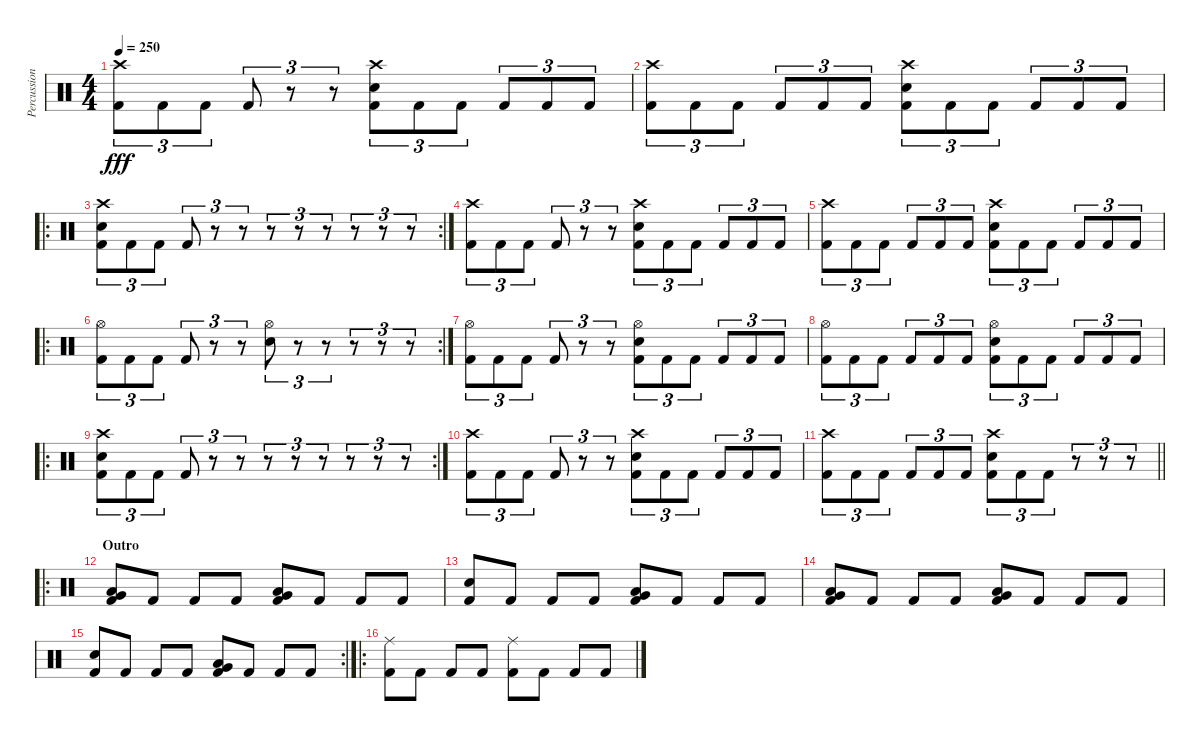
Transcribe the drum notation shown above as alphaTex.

\track ("Percussion" "Percussion") {instrument percussion}
\staff {score}
\articulation defaults
\ts (4 4)
\tempo 250
\clef neutral
\ks c
("Crash high (hit)" "Kick (hit) 2").8{tu (3 2) dy fff} "Kick (hit) 2".8{tu (3 2)} "Kick (hit) 2".8{tu (3 2)} "Kick (hit) 2".8{tu (3 2)} r.8{tu (3 2)} r.8{tu (3 2)} ("Crash high (hit)" "Electric Snare (hit)" "Kick (hit) 2").8{tu (3 2)} "Kick (hit) 2".8{tu (3 2)} "Kick (hit) 2".8{tu (3 2)} "Kick (hit) 2".8{tu (3 2)} "Kick (hit) 2".8{tu (3 2)} "Kick (hit) 2".8{tu (3 2)} |
("Crash high (hit)" "Kick (hit) 2").8{tu (3 2)} "Kick (hit) 2".8{tu (3 2)} "Kick (hit) 2".8{tu (3 2)} "Kick (hit) 2".8{tu (3 2)} "Kick (hit) 2".8{tu (3 2)} "Kick (hit) 2".8{tu (3 2)} ("Crash high (hit)" "Electric Snare (hit)" "Kick (hit) 2").8{tu (3 2)} "Kick (hit) 2".8{tu (3 2)} "Kick (hit) 2".8{tu (3 2)} "Kick (hit) 2".8{tu (3 2)} "Kick (hit) 2".8{tu (3 2)} "Kick (hit) 2".8{tu (3 2)} |
\ro
\rc 2
("Crash high (hit)" "Electric Snare (hit)" "Kick (hit) 2").8{tu (3 2)} "Kick (hit) 2".8{tu (3 2)} "Kick (hit) 2".8{tu (3 2)} "Kick (hit) 2".8{tu (3 2)} r.8{tu (3 2)} r.8{tu (3 2)} r.8{tu (3 2)} r.8{tu (3 2)} r.8{tu (3 2)} r.8{tu (3 2)} r.8{tu (3 2)} r.8{tu (3 2)} |
("Crash high (hit)" "Kick (hit) 2").8{tu (3 2)} "Kick (hit) 2".8{tu (3 2)} "Kick (hit) 2".8{tu (3 2)} "Kick (hit) 2".8{tu (3 2)} r.8{tu (3 2)} r.8{tu (3 2)} ("Crash high (hit)" "Electric Snare (hit)" "Kick (hit) 2").8{tu (3 2)} "Kick (hit) 2".8{tu (3 2)} "Kick (hit) 2".8{tu (3 2)} "Kick (hit) 2".8{tu (3 2)} "Kick (hit) 2".8{tu (3 2)} "Kick (hit) 2".8{tu (3 2)} |
("Crash high (hit)" "Kick (hit) 2").8{tu (3 2)} "Kick (hit) 2".8{tu (3 2)} "Kick (hit) 2".8{tu (3 2)} "Kick (hit) 2".8{tu (3 2)} "Kick (hit) 2".8{tu (3 2)} "Kick (hit) 2".8{tu (3 2)} ("Crash high (hit)" "Electric Snare (hit)" "Kick (hit) 2").8{tu (3 2)} "Kick (hit) 2".8{tu (3 2)} "Kick (hit) 2".8{tu (3 2)} "Kick (hit) 2".8{tu (3 2)} "Kick (hit) 2".8{tu (3 2)} "Kick (hit) 2".8{tu (3 2)} |
\ro
\rc 2
("Hi-Hat (open)" "Kick (hit) 2").8{tu (3 2)} "Kick (hit) 2".8{tu (3 2)} "Kick (hit) 2".8{tu (3 2)} "Kick (hit) 2".8{tu (3 2)} r.8{tu (3 2)} r.8{tu (3 2)} ("Hi-Hat (open)" "Electric Snare (hit)").8{tu (3 2)} r.8{tu (3 2)} r.8{tu (3 2)} r.8{tu (3 2)} r.8{tu (3 2)} r.8{tu (3 2)} |
("Hi-Hat (open)" "Kick (hit) 2").8{tu (3 2)} "Kick (hit) 2".8{tu (3 2)} "Kick (hit) 2".8{tu (3 2)} "Kick (hit) 2".8{tu (3 2)} r.8{tu (3 2)} r.8{tu (3 2)} ("Hi-Hat (open)" "Electric Snare (hit)" "Kick (hit) 2").8{tu (3 2)} "Kick (hit) 2".8{tu (3 2)} "Kick (hit) 2".8{tu (3 2)} "Kick (hit) 2".8{tu (3 2)} "Kick (hit) 2".8{tu (3 2)} "Kick (hit) 2".8{tu (3 2)} |
("Hi-Hat (open)" "Kick (hit) 2").8{tu (3 2)} "Kick (hit) 2".8{tu (3 2)} "Kick (hit) 2".8{tu (3 2)} "Kick (hit) 2".8{tu (3 2)} "Kick (hit) 2".8{tu (3 2)} "Kick (hit) 2".8{tu (3 2)} ("Hi-Hat (open)" "Electric Snare (hit)" "Kick (hit) 2").8{tu (3 2)} "Kick (hit) 2".8{tu (3 2)} "Kick (hit) 2".8{tu (3 2)} "Kick (hit) 2".8{tu (3 2)} "Kick (hit) 2".8{tu (3 2)} "Kick (hit) 2".8{tu (3 2)} |
\ro
\rc 2
("Crash high (hit)" "Electric Snare (hit)" "Kick (hit) 2").8{tu (3 2)} "Kick (hit) 2".8{tu (3 2)} "Kick (hit) 2".8{tu (3 2)} "Kick (hit) 2".8{tu (3 2)} r.8{tu (3 2)} r.8{tu (3 2)} r.8{tu (3 2)} r.8{tu (3 2)} r.8{tu (3 2)} r.8{tu (3 2)} r.8{tu (3 2)} r.8{tu (3 2)} |
("Crash high (hit)" "Kick (hit) 2").8{tu (3 2)} "Kick (hit) 2".8{tu (3 2)} "Kick (hit) 2".8{tu (3 2)} "Kick (hit) 2".8{tu (3 2)} r.8{tu (3 2)} r.8{tu (3 2)} ("Crash high (hit)" "Electric Snare (hit)" "Kick (hit) 2").8{tu (3 2)} "Kick (hit) 2".8{tu (3 2)} "Kick (hit) 2".8{tu (3 2)} "Kick (hit) 2".8{tu (3 2)} "Kick (hit) 2".8{tu (3 2)} "Kick (hit) 2".8{tu (3 2)} |
\barLineRight lightlight
("Crash high (hit)" "Kick (hit) 2").8{tu (3 2)} "Kick (hit) 2".8{tu (3 2)} "Kick (hit) 2".8{tu (3 2)} "Kick (hit) 2".8{tu (3 2)} "Kick (hit) 2".8{tu (3 2)} "Kick (hit) 2".8{tu (3 2)} ("Crash high (hit)" "Electric Snare (hit)" "Kick (hit) 2").8{tu (3 2)} "Kick (hit) 2".8{tu (3 2)} "Kick (hit) 2".8{tu (3 2)} r.8{tu (3 2)} r.8{tu (3 2)} r.8{tu (3 2)} |
\ro
\section ("" "Outro")
("Low Tom (hit)" "Very Low Tom (hit)" "Kick (hit) 2").8{bu 480} "Kick (hit) 2".8 "Kick (hit) 2".8 "Kick (hit) 2".8 ("Low Tom (hit)" "Very Low Tom (hit)" "Kick (hit) 2").8{bu 480} "Kick (hit) 2".8 "Kick (hit) 2".8 "Kick (hit) 2".8 |
("Electric Snare (hit)" "Kick (hit) 2").8 "Kick (hit) 2".8 "Kick (hit) 2".8 "Kick (hit) 2".8 ("Low Tom (hit)" "Very Low Tom (hit)" "Kick (hit) 2").8{bu 480} "Kick (hit) 2".8 "Kick (hit) 2".8 "Kick (hit) 2".8 |
("Low Tom (hit)" "Very Low Tom (hit)" "Kick (hit) 2").8{bu 480} "Kick (hit) 2".8 "Kick (hit) 2".8 "Kick (hit) 2".8 ("Low Tom (hit)" "Very Low Tom (hit)" "Kick (hit) 2").8{bu 480} "Kick (hit) 2".8 "Kick (hit) 2".8 "Kick (hit) 2".8 |
\rc 2
("Electric Snare (hit)" "Kick (hit) 2").8 "Kick (hit) 2".8 "Kick (hit) 2".8 "Kick (hit) 2".8 ("Low Tom (hit)" "Very Low Tom (hit)" "Kick (hit) 2").8{bu 480} "Kick (hit) 2".8 "Kick (hit) 2".8 "Kick (hit) 2".8 |
\ro
("Ride (middle)" "Kick (hit) 2").8 "Kick (hit) 2".8 "Kick (hit) 2".8 "Kick (hit) 2".8 ("Ride (middle)" "Kick (hit) 2").8 "Kick (hit) 2".8 "Kick (hit) 2".8 "Kick (hit) 2".8
